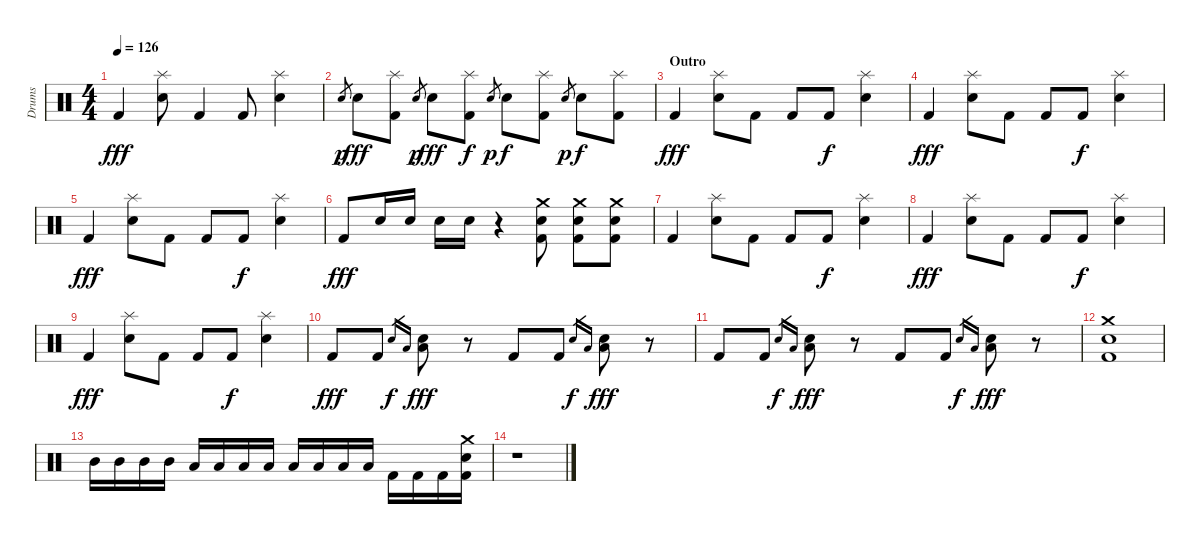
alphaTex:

\track ("Drums" "Drums") {instrument percussion}
\staff {score}
\articulation defaults
\ts (4 4)
\tempo 126
\clef neutral
\ks c "Kick (hit) 2".4{dy fff}
("Splash (hit)" "Electric Snare (hit)").8 "Kick (hit) 2".4 "Kick (hit) 2".8 ("Splash (hit)" "Electric Snare (hit)").4 |
"Electric Snare (hit)".8{gr dy p} "Electric Snare (hit)".8{dy fff} ("Splash (hit)" "Kick (hit) 2").8 "Electric Snare (hit)".8{gr dy p} "Electric Snare (hit)".8{dy fff} ("Splash (hit)" "Kick (hit) 2").8{dy f} "Electric Snare (hit)".8{gr dy p} "Electric Snare (hit)".8{dy f} ("Splash (hit)" "Kick (hit) 2").8 "Electric Snare (hit)".8{gr dy p} "Electric Snare (hit)".8{dy f} ("Splash (hit)" "Kick (hit) 2").8 |
\section ("" "Outro")
"Kick (hit) 2".4{dy fff} ("Splash (hit)" "Electric Snare (hit)").8 "Kick (hit) 2".8 "Kick (hit) 2".8 "Kick (hit) 2".8{dy f} ("Splash (hit)" "Electric Snare (hit)").4 |
"Kick (hit) 2".4{dy fff} ("Splash (hit)" "Electric Snare (hit)").8 "Kick (hit) 2".8 "Kick (hit) 2".8 "Kick (hit) 2".8{dy f} ("Splash (hit)" "Electric Snare (hit)").4 |
"Kick (hit) 2".4{dy fff} ("Splash (hit)" "Electric Snare (hit)").8 "Kick (hit) 2".8 "Kick (hit) 2".8 "Kick (hit) 2".8{dy f} ("Splash (hit)" "Electric Snare (hit)").4 |
"Kick (hit) 2".8{dy fff} "Electric Snare (hit)".16 "Electric Snare (hit)".16 "Electric Snare (hit)".16 "Electric Snare (hit)".16 r.4 ("Crash medium (hit)" "Electric Snare (hit)" "Kick (hit) 2").8 ("Crash medium (hit)" "Electric Snare (hit)" "Kick (hit) 2").8 ("Crash medium (hit)" "Electric Snare (hit)" "Kick (hit) 2").8 |
"Kick (hit) 2".4 ("Splash (hit)" "Electric Snare (hit)").8 "Kick (hit) 2".8 "Kick (hit) 2".8 "Kick (hit) 2".8{dy f} ("Splash (hit)" "Electric Snare (hit)").4 |
"Kick (hit) 2".4{dy fff} ("Splash (hit)" "Electric Snare (hit)").8 "Kick (hit) 2".8 "Kick (hit) 2".8 "Kick (hit) 2".8{dy f} ("Splash (hit)" "Electric Snare (hit)").4 |
"Kick (hit) 2".4{dy fff} ("Splash (hit)" "Electric Snare (hit)").8 "Kick (hit) 2".8 "Kick (hit) 2".8 "Kick (hit) 2".8{dy f} ("Splash (hit)" "Electric Snare (hit)").4 |
"Kick (hit) 2".8{dy fff} "Kick (hit) 2".8 "Electric Snare (hit)".16{gr dy f} "Low Tom (hit)".16{gr} ("Electric Snare (hit)" "Low Tom (hit)").8{dy fff} r.8 "Kick (hit) 2".8 "Kick (hit) 2".8 "Electric Snare (hit)".16{gr dy f} "Low Floor Tom (hit)".16{gr} ("Electric Snare (hit)" "Low Floor Tom (hit)").8{dy fff} r.8 |
"Kick (hit) 2".8 "Kick (hit) 2".8 "Electric Snare (hit)".16{gr dy f} "Low Tom (hit)".16{gr} ("Electric Snare (hit)" "Low Tom (hit)").8{dy fff} r.8 "Kick (hit) 2".8 "Kick (hit) 2".8 "Electric Snare (hit)".16{gr dy f} "Low Floor Tom (hit)".16{gr} ("Electric Snare (hit)" "Low Floor Tom (hit)").8{dy fff} r.8 |
("Crash medium (hit)" "Electric Snare (hit)" "Kick (hit) 2").1 |
"Mid Tom (hit)".16 "Mid Tom (hit)".16 "Mid Tom (hit)".16 "Mid Tom (hit)".16 "Low Tom (hit)".16 "Low Tom (hit)".16 "Low Tom (hit)".16 "Low Tom (hit)".16 "Low Floor Tom (hit)".16 "Low Floor Tom (hit)".16 "Low Floor Tom (hit)".16 "Low Floor Tom (hit)".16 "Kick (hit) 2".16 "Kick (hit) 2".16 "Kick (hit) 2".16 ("Crash medium (hit)" "Electric Snare (hit)" "Kick (hit) 2").16 |
r.1
